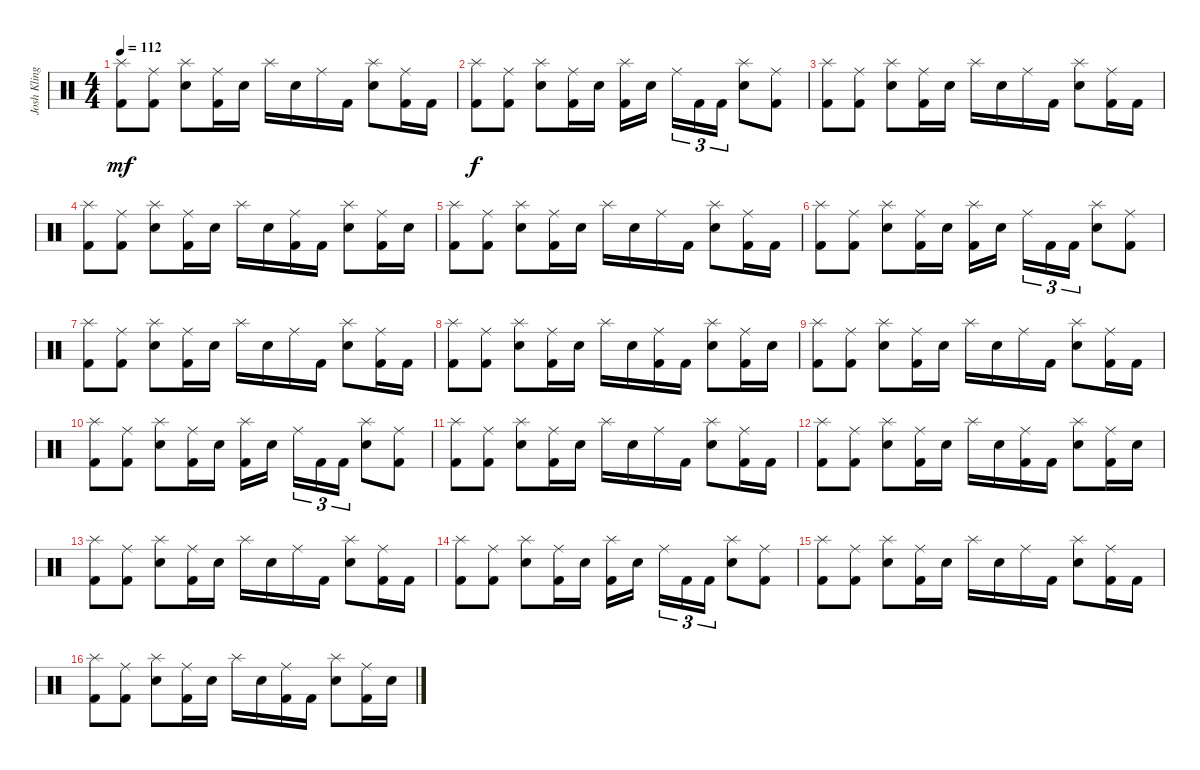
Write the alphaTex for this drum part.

\track ("Josh Klinghoffer " "Josh Kling") {instrument percussion}
\staff {score}
\articulation defaults
\ts (4 4)
\tempo 112
\clef neutral
\ks c
("Splash (hit)" "Kick (hit) 2").8{dy mf} ("Ride (middle)" "Kick (hit) 2").8 ("Splash (hit)" "Electric Snare (hit)").8 ("Ride (middle)" "Kick (hit) 2").16 "Electric Snare (hit)".16 "Splash (hit)".16 "Electric Snare (hit)".16 "Ride (middle)".16 "Kick (hit) 2".16 ("Splash (hit)" "Electric Snare (hit)").8 ("Ride (middle)" "Kick (hit) 2").16 "Kick (hit) 2".16 |
("Splash (hit)" "Kick (hit) 2").8{dy f} ("Ride (middle)" "Kick (hit) 2").8 ("Splash (hit)" "Electric Snare (hit)").8 ("Ride (middle)" "Kick (hit) 2").16 "Electric Snare (hit)".16 ("Splash (hit)" "Kick (hit) 2").16 "Electric Snare (hit)".16{beam splitsecondary} "Ride (middle)".16{tu (3 2)} "Kick (hit) 2".16{tu (3 2)} "Kick (hit) 2".16{tu (3 2)} ("Splash (hit)" "Electric Snare (hit)").8 ("Ride (middle)" "Kick (hit) 2").8 |
("Splash (hit)" "Kick (hit) 2").8 ("Ride (middle)" "Kick (hit) 2").8 ("Splash (hit)" "Electric Snare (hit)").8 ("Ride (middle)" "Kick (hit) 2").16 "Electric Snare (hit)".16 "Splash (hit)".16 "Electric Snare (hit)".16 "Ride (middle)".16 "Kick (hit) 2".16 ("Splash (hit)" "Electric Snare (hit)").8 ("Ride (middle)" "Kick (hit) 2").16 "Kick (hit) 2".16 |
("Splash (hit)" "Kick (hit) 2").8 ("Ride (middle)" "Kick (hit) 2").8 ("Splash (hit)" "Electric Snare (hit)").8 ("Ride (middle)" "Kick (hit) 2").16 "Electric Snare (hit)".16 "Splash (hit)".16 "Electric Snare (hit)".16 ("Ride (middle)" "Kick (hit) 2").16 "Kick (hit) 2".16 ("Splash (hit)" "Electric Snare (hit)").8 ("Ride (middle)" "Kick (hit) 2").16 "Electric Snare (hit)".16 |
("Splash (hit)" "Kick (hit) 2").8 ("Ride (middle)" "Kick (hit) 2").8 ("Splash (hit)" "Electric Snare (hit)").8 ("Ride (middle)" "Kick (hit) 2").16 "Electric Snare (hit)".16 "Splash (hit)".16 "Electric Snare (hit)".16 "Ride (middle)".16 "Kick (hit) 2".16 ("Splash (hit)" "Electric Snare (hit)").8 ("Ride (middle)" "Kick (hit) 2").16 "Kick (hit) 2".16 |
("Splash (hit)" "Kick (hit) 2").8 ("Ride (middle)" "Kick (hit) 2").8 ("Splash (hit)" "Electric Snare (hit)").8 ("Ride (middle)" "Kick (hit) 2").16 "Electric Snare (hit)".16 ("Splash (hit)" "Kick (hit) 2").16 "Electric Snare (hit)".16{beam splitsecondary} "Ride (middle)".16{tu (3 2)} "Kick (hit) 2".16{tu (3 2)} "Kick (hit) 2".16{tu (3 2)} ("Splash (hit)" "Electric Snare (hit)").8 ("Ride (middle)" "Kick (hit) 2").8 |
("Splash (hit)" "Kick (hit) 2").8 ("Ride (middle)" "Kick (hit) 2").8 ("Splash (hit)" "Electric Snare (hit)").8 ("Ride (middle)" "Kick (hit) 2").16 "Electric Snare (hit)".16 "Splash (hit)".16 "Electric Snare (hit)".16 "Ride (middle)".16 "Kick (hit) 2".16 ("Splash (hit)" "Electric Snare (hit)").8 ("Ride (middle)" "Kick (hit) 2").16 "Kick (hit) 2".16 |
("Splash (hit)" "Kick (hit) 2").8 ("Ride (middle)" "Kick (hit) 2").8 ("Splash (hit)" "Electric Snare (hit)").8 ("Ride (middle)" "Kick (hit) 2").16 "Electric Snare (hit)".16 "Splash (hit)".16 "Electric Snare (hit)".16 ("Ride (middle)" "Kick (hit) 2").16 "Kick (hit) 2".16 ("Splash (hit)" "Electric Snare (hit)").8 ("Ride (middle)" "Kick (hit) 2").16 "Electric Snare (hit)".16 |
("Splash (hit)" "Kick (hit) 2").8 ("Ride (middle)" "Kick (hit) 2").8 ("Splash (hit)" "Electric Snare (hit)").8 ("Ride (middle)" "Kick (hit) 2").16 "Electric Snare (hit)".16 "Splash (hit)".16 "Electric Snare (hit)".16 "Ride (middle)".16 "Kick (hit) 2".16 ("Splash (hit)" "Electric Snare (hit)").8 ("Ride (middle)" "Kick (hit) 2").16 "Kick (hit) 2".16 |
("Splash (hit)" "Kick (hit) 2").8 ("Ride (middle)" "Kick (hit) 2").8 ("Splash (hit)" "Electric Snare (hit)").8 ("Ride (middle)" "Kick (hit) 2").16 "Electric Snare (hit)".16 ("Splash (hit)" "Kick (hit) 2").16 "Electric Snare (hit)".16{beam splitsecondary} "Ride (middle)".16{tu (3 2)} "Kick (hit) 2".16{tu (3 2)} "Kick (hit) 2".16{tu (3 2)} ("Splash (hit)" "Electric Snare (hit)").8 ("Ride (middle)" "Kick (hit) 2").8 |
("Splash (hit)" "Kick (hit) 2").8 ("Ride (middle)" "Kick (hit) 2").8 ("Splash (hit)" "Electric Snare (hit)").8 ("Ride (middle)" "Kick (hit) 2").16 "Electric Snare (hit)".16 "Splash (hit)".16 "Electric Snare (hit)".16 "Ride (middle)".16 "Kick (hit) 2".16 ("Splash (hit)" "Electric Snare (hit)").8 ("Ride (middle)" "Kick (hit) 2").16 "Kick (hit) 2".16 |
("Splash (hit)" "Kick (hit) 2").8 ("Ride (middle)" "Kick (hit) 2").8 ("Splash (hit)" "Electric Snare (hit)").8 ("Ride (middle)" "Kick (hit) 2").16 "Electric Snare (hit)".16 "Splash (hit)".16 "Electric Snare (hit)".16 ("Ride (middle)" "Kick (hit) 2").16 "Kick (hit) 2".16 ("Splash (hit)" "Electric Snare (hit)").8 ("Ride (middle)" "Kick (hit) 2").16 "Electric Snare (hit)".16 |
("Splash (hit)" "Kick (hit) 2").8 ("Ride (middle)" "Kick (hit) 2").8 ("Splash (hit)" "Electric Snare (hit)").8 ("Ride (middle)" "Kick (hit) 2").16 "Electric Snare (hit)".16 "Splash (hit)".16 "Electric Snare (hit)".16 "Ride (middle)".16 "Kick (hit) 2".16 ("Splash (hit)" "Electric Snare (hit)").8 ("Ride (middle)" "Kick (hit) 2").16 "Kick (hit) 2".16 |
("Splash (hit)" "Kick (hit) 2").8 ("Ride (middle)" "Kick (hit) 2").8 ("Splash (hit)" "Electric Snare (hit)").8 ("Ride (middle)" "Kick (hit) 2").16 "Electric Snare (hit)".16 ("Splash (hit)" "Kick (hit) 2").16 "Electric Snare (hit)".16{beam splitsecondary} "Ride (middle)".16{tu (3 2)} "Kick (hit) 2".16{tu (3 2)} "Kick (hit) 2".16{tu (3 2)} ("Splash (hit)" "Electric Snare (hit)").8 ("Ride (middle)" "Kick (hit) 2").8 |
("Splash (hit)" "Kick (hit) 2").8 ("Ride (middle)" "Kick (hit) 2").8 ("Splash (hit)" "Electric Snare (hit)").8 ("Ride (middle)" "Kick (hit) 2").16 "Electric Snare (hit)".16 "Splash (hit)".16 "Electric Snare (hit)".16 "Ride (middle)".16 "Kick (hit) 2".16 ("Splash (hit)" "Electric Snare (hit)").8 ("Ride (middle)" "Kick (hit) 2").16 "Kick (hit) 2".16 |
("Splash (hit)" "Kick (hit) 2").8 ("Ride (middle)" "Kick (hit) 2").8 ("Splash (hit)" "Electric Snare (hit)").8 ("Ride (middle)" "Kick (hit) 2").16 "Electric Snare (hit)".16 "Splash (hit)".16 "Electric Snare (hit)".16 ("Ride (middle)" "Kick (hit) 2").16 "Kick (hit) 2".16 ("Splash (hit)" "Electric Snare (hit)").8 ("Ride (middle)" "Kick (hit) 2").16 "Electric Snare (hit)".16
